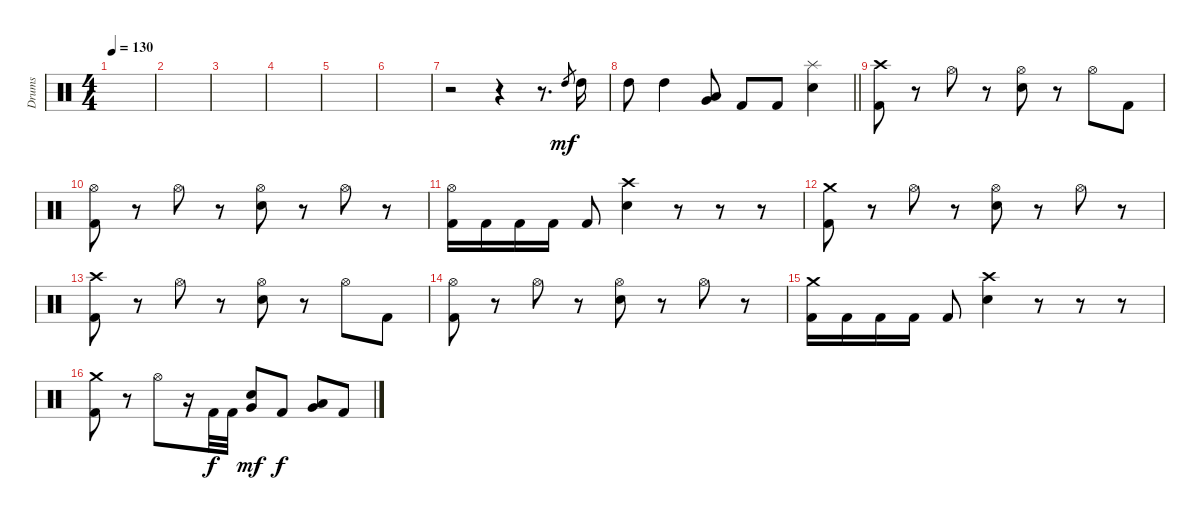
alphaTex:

\track ("Drums" "Drums") {instrument percussion}
\staff {score}
\articulation defaults
\ts (4 4)
\tempo 130
\clef neutral
\ks c
|
|
|
|
|
|
r.2 r.4 r.8{d} "High Tom (hit)".8{gr dy mf} "High Tom (hit)".16 |
\barLineRight lightlight "High Tom (hit)".8 "High Tom (hit)".4
("Very Low Tom (hit)" "Low Floor Tom (hit)").8 "Kick (hit) 2".8 "Kick (hit) 2".8 ("Splash (hit)" "Electric Snare (hit)").4 |
\section ("" "")
("Crash high (hit)" "Kick (hit) 2").8 r.8 "Hi-Hat (open)".8 r.8 ("Hi-Hat (open)" "Electric Snare (hit)").8 r.8 "Hi-Hat (open)".8 "Kick (hit) 2".8 |
("Hi-Hat (open)" "Kick (hit) 2").8 r.8 "Hi-Hat (open)".8 r.8 ("Hi-Hat (open)" "Electric Snare (hit)").8 r.8 "Hi-Hat (open)".8 r.8 |
("Hi-Hat (open)" "Kick (hit) 2").16 "Kick (hit) 2".16 "Kick (hit) 2".16 "Kick (hit) 2".16 "Kick (hit) 2".8 ("Crash high (hit)" "Electric Snare (hit)").4 r.8 r.8 r.8 |
("Crash medium (hit)" "Kick (hit) 2").8 r.8 "Hi-Hat (open)".8 r.8 ("Hi-Hat (open)" "Electric Snare (hit)").8 r.8 "Hi-Hat (open)".8 r.8 |
("Crash high (hit)" "Kick (hit) 2").8 r.8 "Hi-Hat (open)".8 r.8 ("Hi-Hat (open)" "Electric Snare (hit)").8 r.8 "Hi-Hat (open)".8 "Kick (hit) 2".8 |
("Hi-Hat (open)" "Kick (hit) 2").8 r.8 "Hi-Hat (open)".8 r.8 ("Hi-Hat (open)" "Electric Snare (hit)").8 r.8 "Hi-Hat (open)".8 r.8 |
("Crash medium (hit)" "Kick (hit) 2").16 "Kick (hit) 2".16 "Kick (hit) 2".16 "Kick (hit) 2".16 "Kick (hit) 2".8 ("Crash high (hit)" "Electric Snare (hit)").4 r.8 r.8 r.8 |
("Crash medium (hit)" "Kick (hit) 2").8 r.8 "Hi-Hat (open)".8 r.16 "Kick (hit) 2".32{dy f} "Kick (hit) 2".32 ("Very Low Tom (hit)" "Electric Snare (hit)").8{dy mf} "Kick (hit) 2".8{dy f} ("Very Low Tom (hit)" "Low Floor Tom (hit)").8 "Kick (hit) 2".8
